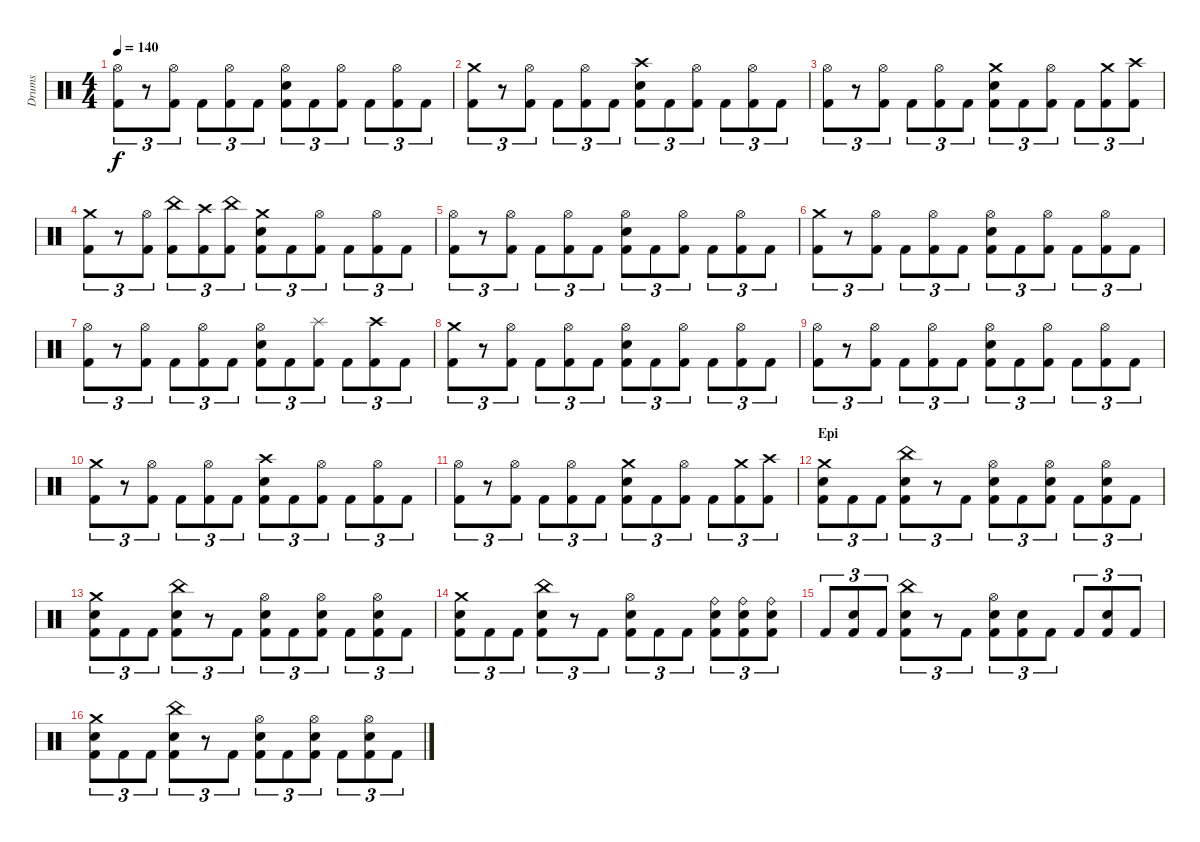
\track ("Drums" "Drums") {instrument percussion}
\staff {score}
\articulation defaults
\ts (4 4)
\tempo 140
\clef neutral
\ks c
("Hi-Hat (open)" "Kick (hit) 2").8{tu (3 2) dy f} r.8{tu (3 2)} ("Hi-Hat (open)" "Kick (hit) 2").8{tu (3 2)} "Kick (hit) 2".8{tu (3 2)} ("Hi-Hat (open)" "Kick (hit) 2").8{tu (3 2)} "Kick (hit) 2".8{tu (3 2)} ("Hi-Hat (open)" "Electric Snare (hit)" "Kick (hit) 2").8{tu (3 2)} "Kick (hit) 2".8{tu (3 2)} ("Hi-Hat (open)" "Kick (hit) 2").8{tu (3 2)} "Kick (hit) 2".8{tu (3 2)} ("Hi-Hat (open)" "Kick (hit) 2").8{tu (3 2)} "Kick (hit) 2".8{tu (3 2)} |
("Crash medium (hit)" "Kick (hit) 2").8{tu (3 2)} r.8{tu (3 2)} ("Hi-Hat (open)" "Kick (hit) 2").8{tu (3 2)} "Kick (hit) 2".8{tu (3 2)} ("Hi-Hat (open)" "Kick (hit) 2").8{tu (3 2)} "Kick (hit) 2".8{tu (3 2)} ("Crash high (hit)" "Electric Snare (hit)" "Kick (hit) 2").8{tu (3 2)} "Kick (hit) 2".8{tu (3 2)} ("Hi-Hat (open)" "Kick (hit) 2").8{tu (3 2)} "Kick (hit) 2".8{tu (3 2)} ("Hi-Hat (open)" "Kick (hit) 2").8{tu (3 2)} "Kick (hit) 2".8{tu (3 2)} |
("Hi-Hat (open)" "Kick (hit) 2").8{tu (3 2)} r.8{tu (3 2)} ("Hi-Hat (open)" "Kick (hit) 2").8{tu (3 2)} "Kick (hit) 2".8{tu (3 2)} ("Hi-Hat (open)" "Kick (hit) 2").8{tu (3 2)} "Kick (hit) 2".8{tu (3 2)} ("Crash medium (hit)" "Electric Snare (hit)" "Kick (hit) 2").8{tu (3 2)} "Kick (hit) 2".8{tu (3 2)} ("Hi-Hat (open)" "Kick (hit) 2").8{tu (3 2)} "Kick (hit) 2".8{tu (3 2)} ("Crash medium (hit)" "Kick (hit) 2").8{tu (3 2)} ("Crash high (hit)" "Kick (hit) 2").8{tu (3 2)} |
("Crash medium (hit)" "Kick (hit) 2").8{tu (3 2)} r.8{tu (3 2)} ("Hi-Hat (open)" "Kick (hit) 2").8{tu (3 2)} ("China (hit)" "Kick (hit) 2").8{tu (3 2)} ("Crash high (hit)" "Kick (hit) 2").8{tu (3 2)} ("China (hit)" "Kick (hit) 2").8{tu (3 2)} ("Crash medium (hit)" "Electric Snare (hit)" "Kick (hit) 2").8{tu (3 2)} "Kick (hit) 2".8{tu (3 2)} ("Hi-Hat (open)" "Kick (hit) 2").8{tu (3 2)} "Kick (hit) 2".8{tu (3 2)} ("Hi-Hat (open)" "Kick (hit) 2").8{tu (3 2)} "Kick (hit) 2".8{tu (3 2)} |
("Hi-Hat (open)" "Kick (hit) 2").8{tu (3 2)} r.8{tu (3 2)} ("Hi-Hat (open)" "Kick (hit) 2").8{tu (3 2)} "Kick (hit) 2".8{tu (3 2)} ("Hi-Hat (open)" "Kick (hit) 2").8{tu (3 2)} "Kick (hit) 2".8{tu (3 2)} ("Hi-Hat (open)" "Electric Snare (hit)" "Kick (hit) 2").8{tu (3 2)} "Kick (hit) 2".8{tu (3 2)} ("Hi-Hat (open)" "Kick (hit) 2").8{tu (3 2)} "Kick (hit) 2".8{tu (3 2)} ("Hi-Hat (open)" "Kick (hit) 2").8{tu (3 2)} "Kick (hit) 2".8{tu (3 2)} |
("Crash medium (hit)" "Kick (hit) 2").8{tu (3 2)} r.8{tu (3 2)} ("Hi-Hat (open)" "Kick (hit) 2").8{tu (3 2)} "Kick (hit) 2".8{tu (3 2)} ("Hi-Hat (open)" "Kick (hit) 2").8{tu (3 2)} "Kick (hit) 2".8{tu (3 2)} ("Hi-Hat (open)" "Electric Snare (hit)" "Kick (hit) 2").8{tu (3 2)} "Kick (hit) 2".8{tu (3 2)} ("Hi-Hat (open)" "Kick (hit) 2").8{tu (3 2)} "Kick (hit) 2".8{tu (3 2)} ("Hi-Hat (open)" "Kick (hit) 2").8{tu (3 2)} "Kick (hit) 2".8{tu (3 2)} |
("Hi-Hat (open)" "Kick (hit) 2").8{tu (3 2)} r.8{tu (3 2)} ("Hi-Hat (open)" "Kick (hit) 2").8{tu (3 2)} "Kick (hit) 2".8{tu (3 2)} ("Hi-Hat (open)" "Kick (hit) 2").8{tu (3 2)} "Kick (hit) 2".8{tu (3 2)} ("Hi-Hat (open)" "Electric Snare (hit)" "Kick (hit) 2").8{tu (3 2)} "Kick (hit) 2".8{tu (3 2)} ("Splash (hit)" "Kick (hit) 2").8{tu (3 2)} "Kick (hit) 2".8{tu (3 2)} ("Crash high (hit)" "Kick (hit) 2").8{tu (3 2)} "Kick (hit) 2".8{tu (3 2)} |
("Crash medium (hit)" "Kick (hit) 2").8{tu (3 2)} r.8{tu (3 2)} ("Hi-Hat (open)" "Kick (hit) 2").8{tu (3 2)} "Kick (hit) 2".8{tu (3 2)} ("Hi-Hat (open)" "Kick (hit) 2").8{tu (3 2)} "Kick (hit) 2".8{tu (3 2)} ("Hi-Hat (open)" "Electric Snare (hit)" "Kick (hit) 2").8{tu (3 2)} "Kick (hit) 2".8{tu (3 2)} ("Hi-Hat (open)" "Kick (hit) 2").8{tu (3 2)} "Kick (hit) 2".8{tu (3 2)} ("Hi-Hat (open)" "Kick (hit) 2").8{tu (3 2)} "Kick (hit) 2".8{tu (3 2)} |
("Hi-Hat (open)" "Kick (hit) 2").8{tu (3 2)} r.8{tu (3 2)} ("Hi-Hat (open)" "Kick (hit) 2").8{tu (3 2)} "Kick (hit) 2".8{tu (3 2)} ("Hi-Hat (open)" "Kick (hit) 2").8{tu (3 2)} "Kick (hit) 2".8{tu (3 2)} ("Hi-Hat (open)" "Electric Snare (hit)" "Kick (hit) 2").8{tu (3 2)} "Kick (hit) 2".8{tu (3 2)} ("Hi-Hat (open)" "Kick (hit) 2").8{tu (3 2)} "Kick (hit) 2".8{tu (3 2)} ("Hi-Hat (open)" "Kick (hit) 2").8{tu (3 2)} "Kick (hit) 2".8{tu (3 2)} |
("Crash medium (hit)" "Kick (hit) 2").8{tu (3 2)} r.8{tu (3 2)} ("Hi-Hat (open)" "Kick (hit) 2").8{tu (3 2)} "Kick (hit) 2".8{tu (3 2)} ("Hi-Hat (open)" "Kick (hit) 2").8{tu (3 2)} "Kick (hit) 2".8{tu (3 2)} ("Crash high (hit)" "Electric Snare (hit)" "Kick (hit) 2").8{tu (3 2)} "Kick (hit) 2".8{tu (3 2)} ("Hi-Hat (open)" "Kick (hit) 2").8{tu (3 2)} "Kick (hit) 2".8{tu (3 2)} ("Hi-Hat (open)" "Kick (hit) 2").8{tu (3 2)} "Kick (hit) 2".8{tu (3 2)} |
("Hi-Hat (open)" "Kick (hit) 2").8{tu (3 2)} r.8{tu (3 2)} ("Hi-Hat (open)" "Kick (hit) 2").8{tu (3 2)} "Kick (hit) 2".8{tu (3 2)} ("Hi-Hat (open)" "Kick (hit) 2").8{tu (3 2)} "Kick (hit) 2".8{tu (3 2)} ("Crash medium (hit)" "Electric Snare (hit)" "Kick (hit) 2").8{tu (3 2)} "Kick (hit) 2".8{tu (3 2)} ("Hi-Hat (open)" "Kick (hit) 2").8{tu (3 2)} "Kick (hit) 2".8{tu (3 2)} ("Crash medium (hit)" "Kick (hit) 2").8{tu (3 2)} ("Crash high (hit)" "Kick (hit) 2").8{tu (3 2)} |
\section ("" "Epi")
("Crash medium (hit)" "Electric Snare (hit)" "Kick (hit) 2").8{tu (3 2)} "Kick (hit) 2".8{tu (3 2)} "Kick (hit) 2".8{tu (3 2)} ("China (hit)" "Electric Snare (hit)" "Kick (hit) 2").8{tu (3 2)} r.8{tu (3 2)} "Kick (hit) 2".8{tu (3 2)} ("Hi-Hat (open)" "Electric Snare (hit)" "Kick (hit) 2").8{tu (3 2)} "Kick (hit) 2".8{tu (3 2)} ("Hi-Hat (open)" "Electric Snare (hit)" "Kick (hit) 2").8{tu (3 2)} "Kick (hit) 2".8{tu (3 2)} ("Hi-Hat (open)" "Electric Snare (hit)" "Kick (hit) 2").8{tu (3 2)} "Kick (hit) 2".8{tu (3 2)} |
("Crash medium (hit)" "Electric Snare (hit)" "Kick (hit) 2").8{tu (3 2)} "Kick (hit) 2".8{tu (3 2)} "Kick (hit) 2".8{tu (3 2)} ("China (hit)" "Electric Snare (hit)" "Kick (hit) 2").8{tu (3 2)} r.8{tu (3 2)} "Kick (hit) 2".8{tu (3 2)} ("Hi-Hat (open)" "Electric Snare (hit)" "Kick (hit) 2").8{tu (3 2)} "Kick (hit) 2".8{tu (3 2)} ("Hi-Hat (open)" "Electric Snare (hit)" "Kick (hit) 2").8{tu (3 2)} "Kick (hit) 2".8{tu (3 2)} ("Hi-Hat (open)" "Electric Snare (hit)" "Kick (hit) 2").8{tu (3 2)} "Kick (hit) 2".8{tu (3 2)} |
("Crash medium (hit)" "Electric Snare (hit)" "Kick (hit) 2").8{tu (3 2)} "Kick (hit) 2".8{tu (3 2)} "Kick (hit) 2".8{tu (3 2)} ("China (hit)" "Electric Snare (hit)" "Kick (hit) 2").8{tu (3 2)} r.8{tu (3 2)} "Kick (hit) 2".8{tu (3 2)} ("Hi-Hat (open)" "Electric Snare (hit)" "Kick (hit) 2").8{tu (3 2)} "Kick (hit) 2".8{tu (3 2)} "Kick (hit) 2".8{tu (3 2)} ("Ride (bell)" "Electric Snare (hit)" "Kick (hit) 2").8{tu (3 2)} ("Ride (bell)" "Electric Snare (hit)" "Kick (hit) 2").8{tu (3 2)} ("Ride (bell)" "Electric Snare (hit)" "Kick (hit) 2").8{tu (3 2)} |
"Kick (hit) 2".8{tu (3 2)} ("Electric Snare (hit)" "Kick (hit) 2").8{tu (3 2)} "Kick (hit) 2".8{tu (3 2)} ("China (hit)" "Electric Snare (hit)" "Kick (hit) 2").8{tu (3 2)} r.8{tu (3 2)} "Kick (hit) 2".8{tu (3 2)} ("Hi-Hat (open)" "Electric Snare (hit)" "Kick (hit) 2").8{tu (3 2)} ("Electric Snare (hit)" "Kick (hit) 2").8{tu (3 2)} "Kick (hit) 2".8{tu (3 2)} "Kick (hit) 2".8{tu (3 2)} ("Electric Snare (hit)" "Kick (hit) 2").8{tu (3 2)} "Kick (hit) 2".8{tu (3 2)} |
("Crash medium (hit)" "Electric Snare (hit)" "Kick (hit) 2").8{tu (3 2)} "Kick (hit) 2".8{tu (3 2)} "Kick (hit) 2".8{tu (3 2)} ("China (hit)" "Electric Snare (hit)" "Kick (hit) 2").8{tu (3 2)} r.8{tu (3 2)} "Kick (hit) 2".8{tu (3 2)} ("Hi-Hat (open)" "Electric Snare (hit)" "Kick (hit) 2").8{tu (3 2)} "Kick (hit) 2".8{tu (3 2)} ("Hi-Hat (open)" "Electric Snare (hit)" "Kick (hit) 2").8{tu (3 2)} "Kick (hit) 2".8{tu (3 2)} ("Hi-Hat (open)" "Electric Snare (hit)" "Kick (hit) 2").8{tu (3 2)} "Kick (hit) 2".8{tu (3 2)}
